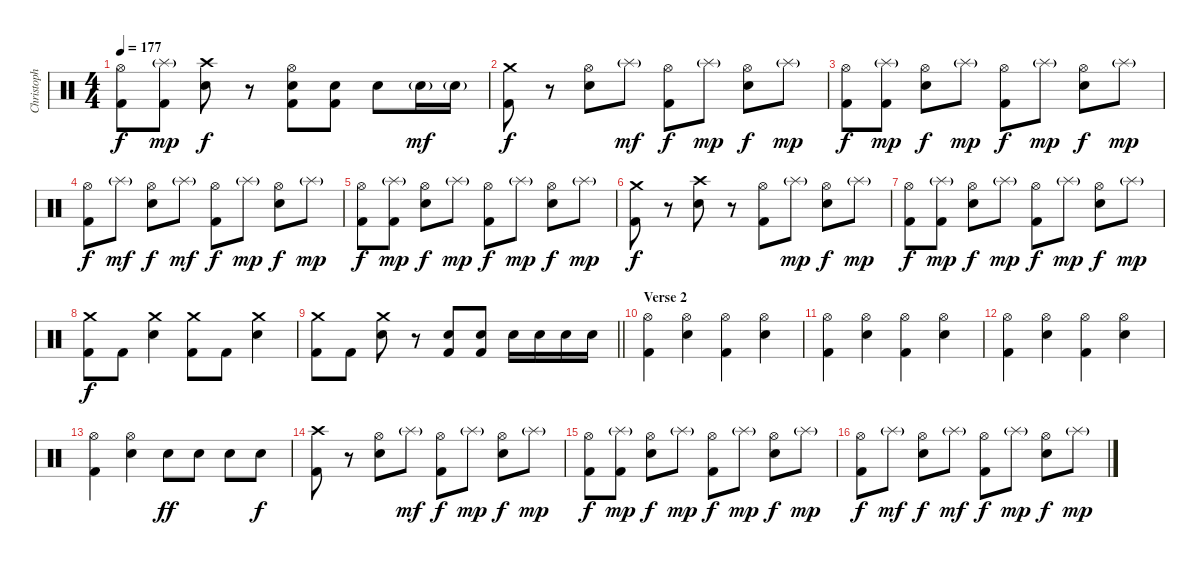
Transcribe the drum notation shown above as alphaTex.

\track ("Christoph Schneider [drums]" "Christoph ") {instrument percussion}
\staff {score}
\articulation defaults
\ts (4 4)
\tempo 177
\clef neutral
\ks c
("Hi-Hat (open)" "Kick (hit) 2").8{dy f} ("Splash (hit)"{g} "Kick (hit) 2").8{dy mp} ("Crash high (hit)" "Snare (hit) 2").8{dy f} r.8 ("Hi-Hat (open)" "Snare (hit) 2" "Kick (hit) 2").8 ("Snare (hit) 2" "Kick (hit) 2").8 "Snare (hit) 2".8 "Snare (hit) 2"{g}.16{dy mf} "Snare (hit) 2"{g}.16 |
("Crash medium (hit)" "Kick (hit) 2").8{dy f} r.8 ("Hi-Hat (open)" "Snare (hit) 2").8 "Splash (hit)"{g}.8{dy mf} ("Hi-Hat (open)" "Kick (hit) 2").8{dy f} "Splash (hit)"{g}.8{dy mp} ("Hi-Hat (open)" "Snare (hit) 2").8{dy f} "Splash (hit)"{g}.8{dy mp} |
("Hi-Hat (open)" "Kick (hit) 2").8{dy f} ("Splash (hit)"{g} "Kick (hit) 2").8{dy mp} ("Hi-Hat (open)" "Snare (hit) 2").8{dy f} "Splash (hit)"{g}.8{dy mp} ("Hi-Hat (open)" "Kick (hit) 2").8{dy f} "Splash (hit)"{g}.8{dy mp} ("Hi-Hat (open)" "Snare (hit) 2").8{dy f} "Splash (hit)"{g}.8{dy mp} |
("Hi-Hat (open)" "Kick (hit) 2").8{dy f} "Splash (hit)"{g}.8{dy mf} ("Hi-Hat (open)" "Snare (hit) 2").8{dy f} "Splash (hit)"{g}.8{dy mf} ("Hi-Hat (open)" "Kick (hit) 2").8{dy f} "Splash (hit)"{g}.8{dy mp} ("Hi-Hat (open)" "Snare (hit) 2").8{dy f} "Splash (hit)"{g}.8{dy mp} |
("Hi-Hat (open)" "Kick (hit) 2").8{dy f} ("Splash (hit)"{g} "Kick (hit) 2").8{dy mp} ("Hi-Hat (open)" "Snare (hit) 2").8{dy f} "Splash (hit)"{g}.8{dy mp} ("Hi-Hat (open)" "Kick (hit) 2").8{dy f} "Splash (hit)"{g}.8{dy mp} ("Hi-Hat (open)" "Snare (hit) 2").8{dy f} "Splash (hit)"{g}.8{dy mp} |
("Crash medium (hit)" "Kick (hit) 2").8{dy f} r.8 ("Crash high (hit)" "Snare (hit) 2").8 r.8 ("Hi-Hat (open)" "Kick (hit) 2").8 "Splash (hit)"{g}.8{dy mp} ("Hi-Hat (open)" "Snare (hit) 2").8{dy f} "Splash (hit)"{g}.8{dy mp} |
("Hi-Hat (open)" "Kick (hit) 2").8{dy f} ("Splash (hit)"{g} "Kick (hit) 2").8{dy mp} ("Hi-Hat (open)" "Snare (hit) 2").8{dy f} "Splash (hit)"{g}.8{dy mp} ("Hi-Hat (open)" "Kick (hit) 2").8{dy f} "Splash (hit)"{g}.8{dy mp} ("Hi-Hat (open)" "Snare (hit) 2").8{dy f} "Splash (hit)"{g}.8{dy mp} |
("Crash medium (hit)" "Kick (hit) 2").8{dy f} "Kick (hit) 2".8 ("Crash medium (hit)" "Snare (hit) 2").4 ("Crash medium (hit)" "Kick (hit) 2").8 "Kick (hit) 2".8 ("Crash medium (hit)" "Snare (hit) 2").4 |
\barLineRight lightlight
("Crash medium (hit)" "Kick (hit) 2").8 "Kick (hit) 2".8 ("Crash medium (hit)" "Snare (hit) 2").8 r.8 ("Snare (hit) 2" "Kick (hit) 2").8 ("Snare (hit) 2" "Kick (hit) 2").8 "Snare (hit) 2".16 "Snare (hit) 2".16 "Snare (hit) 2".16 "Snare (hit) 2".16 |
\section ("" "Verse 2")
("Hi-Hat (open)" "Kick (hit) 2").4 ("Hi-Hat (open)" "Snare (hit) 2").4 ("Hi-Hat (open)" "Kick (hit) 2").4 ("Hi-Hat (open)" "Snare (hit) 2").4 |
("Hi-Hat (open)" "Kick (hit) 2").4 ("Hi-Hat (open)" "Snare (hit) 2").4 ("Hi-Hat (open)" "Kick (hit) 2").4 ("Hi-Hat (open)" "Snare (hit) 2").4 |
("Hi-Hat (open)" "Kick (hit) 2").4 ("Hi-Hat (open)" "Snare (hit) 2").4 ("Hi-Hat (open)" "Kick (hit) 2").4 ("Hi-Hat (open)" "Snare (hit) 2").4 |
("Hi-Hat (open)" "Kick (hit) 2").4 ("Hi-Hat (open)" "Snare (hit) 2").4 "Snare (hit) 2".8{dy ff} "Snare (hit) 2".8 "Snare (hit) 2".8 "Snare (hit) 2".8{dy f} |
("Crash high (hit)" "Kick (hit) 2").8 r.8 ("Hi-Hat (open)" "Snare (hit) 2").8 "Splash (hit)"{g}.8{dy mf} ("Hi-Hat (open)" "Kick (hit) 2").8{dy f} "Splash (hit)"{g}.8{dy mp} ("Hi-Hat (open)" "Snare (hit) 2").8{dy f} "Splash (hit)"{g}.8{dy mp} |
("Hi-Hat (open)" "Kick (hit) 2").8{dy f} ("Splash (hit)"{g} "Kick (hit) 2").8{dy mp} ("Hi-Hat (open)" "Snare (hit) 2").8{dy f} "Splash (hit)"{g}.8{dy mp} ("Hi-Hat (open)" "Kick (hit) 2").8{dy f} "Splash (hit)"{g}.8{dy mp} ("Hi-Hat (open)" "Snare (hit) 2").8{dy f} "Splash (hit)"{g}.8{dy mp} |
("Hi-Hat (open)" "Kick (hit) 2").8{dy f} "Splash (hit)"{g}.8{dy mf} ("Hi-Hat (open)" "Snare (hit) 2").8{dy f} "Splash (hit)"{g}.8{dy mf} ("Hi-Hat (open)" "Kick (hit) 2").8{dy f} "Splash (hit)"{g}.8{dy mp} ("Hi-Hat (open)" "Snare (hit) 2").8{dy f} "Splash (hit)"{g}.8{dy mp}
